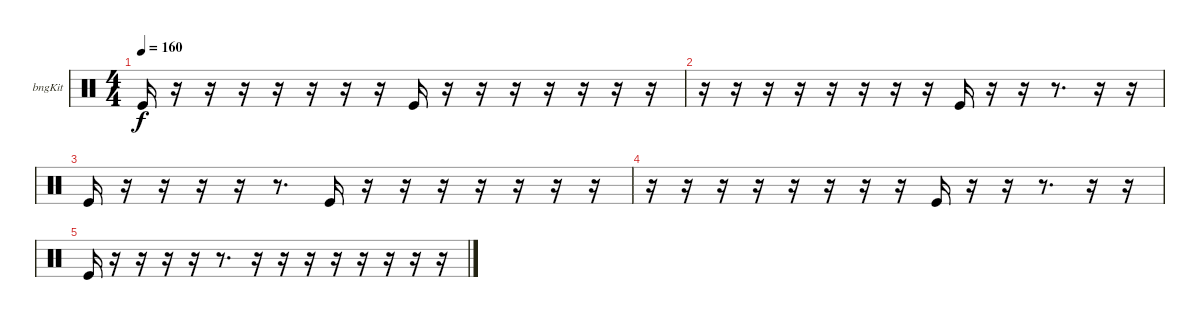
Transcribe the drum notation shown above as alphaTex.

\bracketExtendMode groupsimilarinstruments
\firstSystemTrackNameOrientation horizontal
\otherSystemsTrackNameOrientation horizontal
\track ("Bongos" "bngKit") {instrument percussion}
\staff {score}
\articulation defaults
\ts (4 4)
\tempo 160
\clef neutral
\ks c "Kick (hit)".16{dy f}
r.16 r.16 r.16 r.16 r.16 r.16 r.16 "Kick (hit)".16 r.16 r.16 r.16 r.16 r.16 r.16 r.16 |
r.16 r.16 r.16 r.16 r.16 r.16 r.16 r.16 "Kick (hit)".16 r.16 r.16 r.8{d} r.16 r.16 |
"Kick (hit)".16 r.16 r.16 r.16 r.16 r.8{d} "Kick (hit)".16 r.16 r.16 r.16 r.16 r.16 r.16 r.16 |
r.16 r.16 r.16 r.16 r.16 r.16 r.16 r.16 "Kick (hit)".16 r.16 r.16 r.8{d} r.16 r.16 |
"Kick (hit)".16 r.16 r.16 r.16 r.16 r.8{d} r.16 r.16 r.16 r.16 r.16 r.16 r.16 r.16
